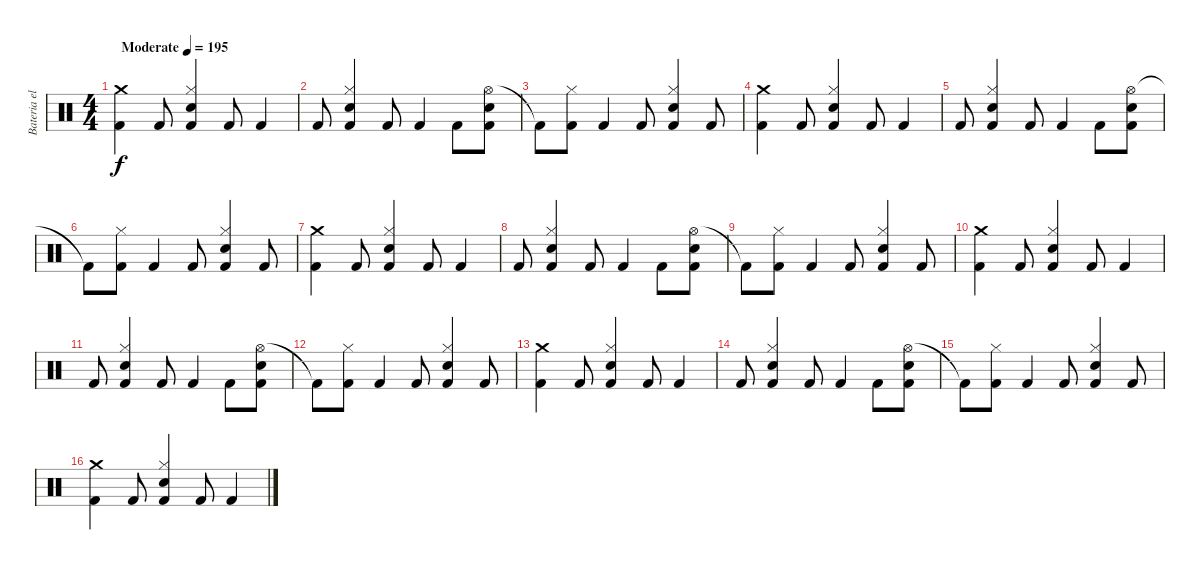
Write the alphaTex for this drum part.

\track ("Bateria electrica" "Bateria el") {instrument percussion}
\staff {score}
\articulation defaults
\ts (4 4)
\tempo (195 "Moderate")
\clef neutral
\ks c
("Crash medium (hit)" "Kick (hit) 2").4{dy f} "Kick (hit) 2".8 ("Hi-Hat (closed)" "Kick (hit) 2" "Snare (hit) 2").4 "Kick (hit) 2".8 "Kick (hit) 2".4 |
"Kick (hit) 2".8 ("Hi-Hat (closed)" "Kick (hit) 2" "Snare (hit) 2").4 "Kick (hit) 2".8 "Kick (hit) 2".4 "Kick (hit) 2".8 ("Hi-Hat (open)" "Kick (hit) 2" "Snare (hit) 2").8 |
"Kick (hit) 2"{t}.8 ("Hi-Hat (closed)" "Kick (hit) 2").8 "Kick (hit) 2".4 "Kick (hit) 2".8 ("Hi-Hat (closed)" "Kick (hit) 2" "Snare (hit) 2").4 "Kick (hit) 2".8 |
("Crash medium (hit)" "Kick (hit) 2").4 "Kick (hit) 2".8 ("Hi-Hat (closed)" "Kick (hit) 2" "Snare (hit) 2").4 "Kick (hit) 2".8 "Kick (hit) 2".4 |
"Kick (hit) 2".8 ("Hi-Hat (closed)" "Kick (hit) 2" "Snare (hit) 2").4 "Kick (hit) 2".8 "Kick (hit) 2".4 "Kick (hit) 2".8 ("Hi-Hat (open)" "Kick (hit) 2" "Snare (hit) 2").8 |
"Kick (hit) 2"{t}.8 ("Hi-Hat (closed)" "Kick (hit) 2").8 "Kick (hit) 2".4 "Kick (hit) 2".8 ("Hi-Hat (closed)" "Kick (hit) 2" "Snare (hit) 2").4 "Kick (hit) 2".8 |
("Crash medium (hit)" "Kick (hit) 2").4 "Kick (hit) 2".8 ("Hi-Hat (closed)" "Kick (hit) 2" "Snare (hit) 2").4 "Kick (hit) 2".8 "Kick (hit) 2".4 |
"Kick (hit) 2".8 ("Hi-Hat (closed)" "Kick (hit) 2" "Snare (hit) 2").4 "Kick (hit) 2".8 "Kick (hit) 2".4 "Kick (hit) 2".8 ("Hi-Hat (open)" "Kick (hit) 2" "Snare (hit) 2").8 |
"Kick (hit) 2"{t}.8 ("Hi-Hat (closed)" "Kick (hit) 2").8 "Kick (hit) 2".4 "Kick (hit) 2".8 ("Hi-Hat (closed)" "Kick (hit) 2" "Snare (hit) 2").4 "Kick (hit) 2".8 |
("Crash medium (hit)" "Kick (hit) 2").4 "Kick (hit) 2".8 ("Hi-Hat (closed)" "Kick (hit) 2" "Snare (hit) 2").4 "Kick (hit) 2".8 "Kick (hit) 2".4 |
"Kick (hit) 2".8 ("Hi-Hat (closed)" "Kick (hit) 2" "Snare (hit) 2").4 "Kick (hit) 2".8 "Kick (hit) 2".4 "Kick (hit) 2".8 ("Hi-Hat (open)" "Kick (hit) 2" "Snare (hit) 2").8 |
"Kick (hit) 2"{t}.8 ("Hi-Hat (closed)" "Kick (hit) 2").8 "Kick (hit) 2".4 "Kick (hit) 2".8 ("Hi-Hat (closed)" "Kick (hit) 2" "Snare (hit) 2").4 "Kick (hit) 2".8 |
("Crash medium (hit)" "Kick (hit) 2").4 "Kick (hit) 2".8 ("Hi-Hat (closed)" "Kick (hit) 2" "Snare (hit) 2").4 "Kick (hit) 2".8 "Kick (hit) 2".4 |
"Kick (hit) 2".8 ("Hi-Hat (closed)" "Kick (hit) 2" "Snare (hit) 2").4 "Kick (hit) 2".8 "Kick (hit) 2".4 "Kick (hit) 2".8 ("Hi-Hat (open)" "Kick (hit) 2" "Snare (hit) 2").8 |
"Kick (hit) 2"{t}.8 ("Hi-Hat (closed)" "Kick (hit) 2").8 "Kick (hit) 2".4 "Kick (hit) 2".8 ("Hi-Hat (closed)" "Kick (hit) 2" "Snare (hit) 2").4 "Kick (hit) 2".8 |
("Crash medium (hit)" "Kick (hit) 2").4 "Kick (hit) 2".8 ("Hi-Hat (closed)" "Kick (hit) 2" "Snare (hit) 2").4 "Kick (hit) 2".8 "Kick (hit) 2".4
